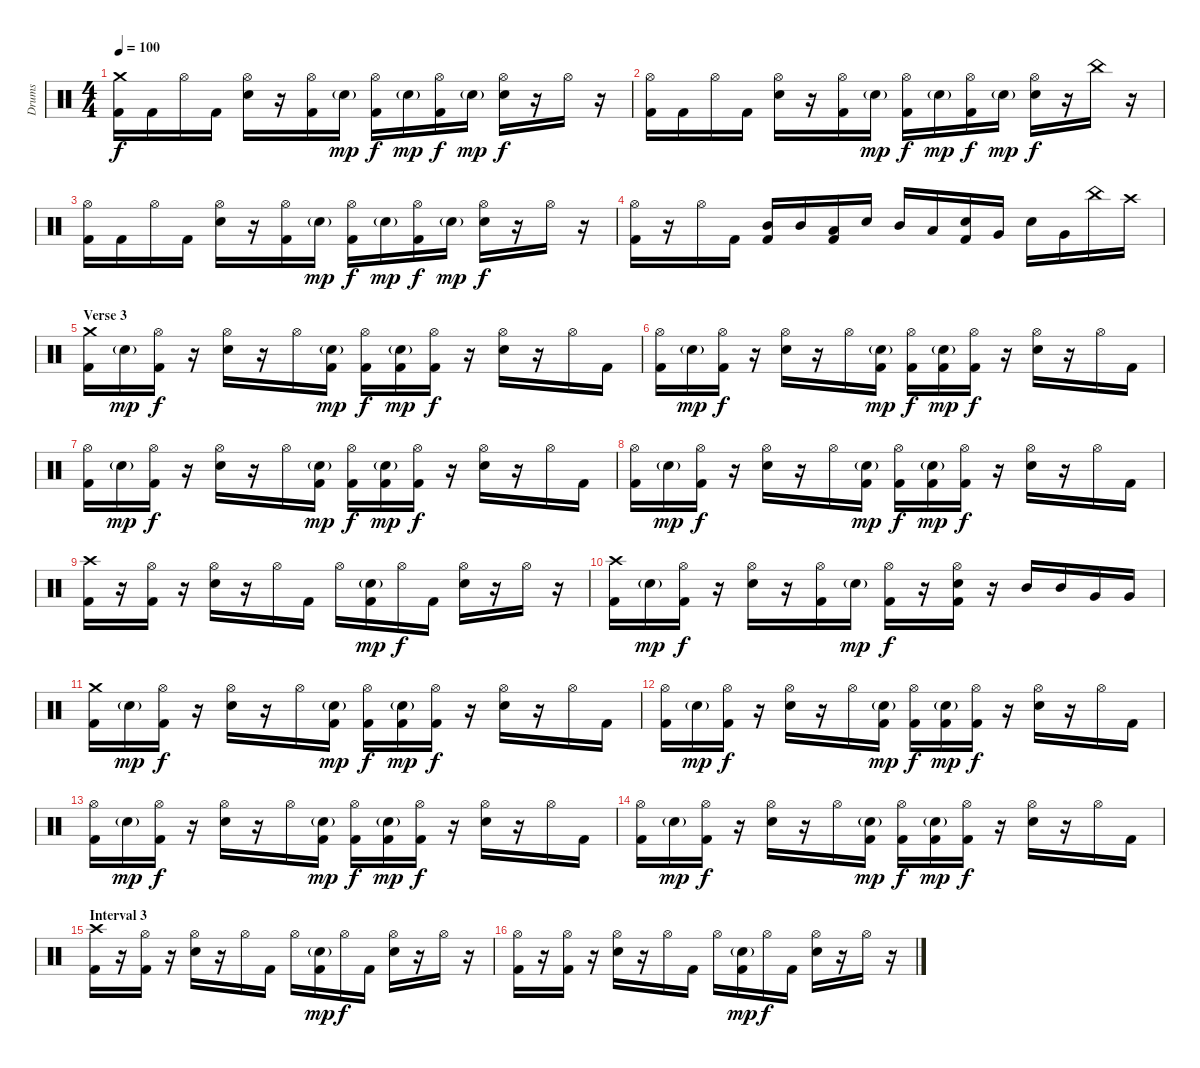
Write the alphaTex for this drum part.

\track ("Drums" "Drums") {instrument percussion}
\staff {score}
\articulation defaults
\ts (4 4)
\tempo 100
\clef neutral
\ks c
("Crash medium (hit)" "Kick (hit) 2").16{dy f} "Kick (hit) 2".16 "Hi-Hat (open)".16 "Kick (hit) 2".16 ("Hi-Hat (open)" "Snare (hit) 2").16 r.16 ("Hi-Hat (open)" "Kick (hit) 2").16 "Snare (hit) 2"{g}.16{dy mp} ("Hi-Hat (open)" "Kick (hit) 2").16{dy f} "Snare (hit) 2"{g}.16{dy mp} ("Hi-Hat (open)" "Kick (hit) 2").16{dy f} "Snare (hit) 2"{g}.16{dy mp} ("Hi-Hat (open)" "Snare (hit) 2").16{dy f} r.16 "Hi-Hat (open)".16 r.16 |
("Hi-Hat (open)" "Kick (hit) 2").16 "Kick (hit) 2".16 "Hi-Hat (open)".16 "Kick (hit) 2".16 ("Hi-Hat (open)" "Snare (hit) 2").16 r.16 ("Hi-Hat (open)" "Kick (hit) 2").16 "Snare (hit) 2"{g}.16{dy mp} ("Hi-Hat (open)" "Kick (hit) 2").16{dy f} "Snare (hit) 2"{g}.16{dy mp} ("Hi-Hat (open)" "Kick (hit) 2").16{dy f} "Snare (hit) 2"{g}.16{dy mp} ("Hi-Hat (open)" "Snare (hit) 2").16{dy f} r.16 "China (hit)".16 r.16 |
("Hi-Hat (open)" "Kick (hit) 2").16 "Kick (hit) 2".16 "Hi-Hat (open)".16 "Kick (hit) 2".16 ("Hi-Hat (open)" "Snare (hit) 2").16 r.16 ("Hi-Hat (open)" "Kick (hit) 2").16 "Snare (hit) 2"{g}.16{dy mp} ("Hi-Hat (open)" "Kick (hit) 2").16{dy f} "Snare (hit) 2"{g}.16{dy mp} ("Hi-Hat (open)" "Kick (hit) 2").16{dy f} "Snare (hit) 2"{g}.16{dy mp} ("Hi-Hat (open)" "Snare (hit) 2").16{dy f} r.16 "Hi-Hat (open)".16 r.16 |
("Hi-Hat (open)" "Kick (hit) 2").16 r.16 "Hi-Hat (open)".16 "Kick (hit) 2".16 ("Mid Tom (hit)" "Kick (hit) 2").16 "Mid Tom (hit)".16 ("Low Tom (hit)" "Kick (hit) 2").16 "Snare (hit) 2".16 "Mid Tom (hit)".16 "Low Tom (hit)".16 ("Snare (hit) 2" "Kick (hit) 2").16 "Very Low Tom (hit)".16 "Snare (hit) 2".16 "Very Low Tom (hit)".16 "China (hit)".16 "Crash high (hit)".16 |
\section ("" "Verse 3")
("Crash medium (hit)" "Kick (hit) 2").16 "Snare (hit) 2"{g}.16{dy mp} ("Hi-Hat (open)" "Kick (hit) 2").16{dy f} r.16 ("Hi-Hat (open)" "Snare (hit) 2").16 r.16 "Hi-Hat (open)".16 ("Snare (hit) 2"{g} "Kick (hit) 2").16{dy mp} ("Hi-Hat (open)" "Kick (hit) 2").16{dy f} ("Snare (hit) 2"{g} "Kick (hit) 2").16{dy mp} ("Hi-Hat (open)" "Kick (hit) 2").16{dy f} r.16 ("Hi-Hat (open)" "Snare (hit) 2").16 r.16 "Hi-Hat (open)".16 "Kick (hit) 2".16 |
("Hi-Hat (open)" "Kick (hit) 2").16 "Snare (hit) 2"{g}.16{dy mp} ("Hi-Hat (open)" "Kick (hit) 2").16{dy f} r.16 ("Hi-Hat (open)" "Snare (hit) 2").16 r.16 "Hi-Hat (open)".16 ("Snare (hit) 2"{g} "Kick (hit) 2").16{dy mp} ("Hi-Hat (open)" "Kick (hit) 2").16{dy f} ("Snare (hit) 2"{g} "Kick (hit) 2").16{dy mp} ("Hi-Hat (open)" "Kick (hit) 2").16{dy f} r.16 ("Hi-Hat (open)" "Snare (hit) 2").16 r.16 "Hi-Hat (open)".16 "Kick (hit) 2".16 |
("Hi-Hat (open)" "Kick (hit) 2").16 "Snare (hit) 2"{g}.16{dy mp} ("Hi-Hat (open)" "Kick (hit) 2").16{dy f} r.16 ("Hi-Hat (open)" "Snare (hit) 2").16 r.16 "Hi-Hat (open)".16 ("Snare (hit) 2"{g} "Kick (hit) 2").16{dy mp} ("Hi-Hat (open)" "Kick (hit) 2").16{dy f} ("Snare (hit) 2"{g} "Kick (hit) 2").16{dy mp} ("Hi-Hat (open)" "Kick (hit) 2").16{dy f} r.16 ("Hi-Hat (open)" "Snare (hit) 2").16 r.16 "Hi-Hat (open)".16 "Kick (hit) 2".16 |
("Hi-Hat (open)" "Kick (hit) 2").16 "Snare (hit) 2"{g}.16{dy mp} ("Hi-Hat (open)" "Kick (hit) 2").16{dy f} r.16 ("Hi-Hat (open)" "Snare (hit) 2").16 r.16 "Hi-Hat (open)".16 ("Snare (hit) 2"{g} "Kick (hit) 2").16{dy mp} ("Hi-Hat (open)" "Kick (hit) 2").16{dy f} ("Snare (hit) 2"{g} "Kick (hit) 2").16{dy mp} ("Hi-Hat (open)" "Kick (hit) 2").16{dy f} r.16 ("Hi-Hat (open)" "Snare (hit) 2").16 r.16 "Hi-Hat (open)".16 "Kick (hit) 2".16 |
("Crash high (hit)" "Kick (hit) 2").16 r.16 ("Hi-Hat (open)" "Kick (hit) 2").16 r.16 ("Hi-Hat (open)" "Snare (hit) 2").16 r.16 "Hi-Hat (open)".16 "Kick (hit) 2".16 "Hi-Hat (open)".16 ("Snare (hit) 2"{g} "Kick (hit) 2").16{dy mp} "Hi-Hat (open)".16{dy f} "Kick (hit) 2".16 ("Hi-Hat (open)" "Snare (hit) 2").16 r.16 "Hi-Hat (open)".16 r.16 |
("Crash high (hit)" "Kick (hit) 2").16 "Snare (hit) 2"{g}.16{dy mp} ("Hi-Hat (open)" "Kick (hit) 2").16{dy f} r.16 ("Hi-Hat (open)" "Snare (hit) 2").16 r.16 ("Hi-Hat (open)" "Kick (hit) 2").16 "Snare (hit) 2"{g}.16{dy mp} ("Hi-Hat (open)" "Kick (hit) 2").16{dy f} r.16 ("Hi-Hat (open)" "Snare (hit) 2" "Kick (hit) 2").16 r.16 "Mid Tom (hit)".16 "Mid Tom (hit)".16 "Very Low Tom (hit)".16 "Very Low Tom (hit)".16 |
("Crash medium (hit)" "Kick (hit) 2").16 "Snare (hit) 2"{g}.16{dy mp} ("Hi-Hat (open)" "Kick (hit) 2").16{dy f} r.16 ("Hi-Hat (open)" "Snare (hit) 2").16 r.16 "Hi-Hat (open)".16 ("Snare (hit) 2"{g} "Kick (hit) 2").16{dy mp} ("Hi-Hat (open)" "Kick (hit) 2").16{dy f} ("Snare (hit) 2"{g} "Kick (hit) 2").16{dy mp} ("Hi-Hat (open)" "Kick (hit) 2").16{dy f} r.16 ("Hi-Hat (open)" "Snare (hit) 2").16 r.16 "Hi-Hat (open)".16 "Kick (hit) 2".16 |
("Hi-Hat (open)" "Kick (hit) 2").16 "Snare (hit) 2"{g}.16{dy mp} ("Hi-Hat (open)" "Kick (hit) 2").16{dy f} r.16 ("Hi-Hat (open)" "Snare (hit) 2").16 r.16 "Hi-Hat (open)".16 ("Snare (hit) 2"{g} "Kick (hit) 2").16{dy mp} ("Hi-Hat (open)" "Kick (hit) 2").16{dy f} ("Snare (hit) 2"{g} "Kick (hit) 2").16{dy mp} ("Hi-Hat (open)" "Kick (hit) 2").16{dy f} r.16 ("Hi-Hat (open)" "Snare (hit) 2").16 r.16 "Hi-Hat (open)".16 "Kick (hit) 2".16 |
("Hi-Hat (open)" "Kick (hit) 2").16 "Snare (hit) 2"{g}.16{dy mp} ("Hi-Hat (open)" "Kick (hit) 2").16{dy f} r.16 ("Hi-Hat (open)" "Snare (hit) 2").16 r.16 "Hi-Hat (open)".16 ("Snare (hit) 2"{g} "Kick (hit) 2").16{dy mp} ("Hi-Hat (open)" "Kick (hit) 2").16{dy f} ("Snare (hit) 2"{g} "Kick (hit) 2").16{dy mp} ("Hi-Hat (open)" "Kick (hit) 2").16{dy f} r.16 ("Hi-Hat (open)" "Snare (hit) 2").16 r.16 "Hi-Hat (open)".16 "Kick (hit) 2".16 |
("Hi-Hat (open)" "Kick (hit) 2").16 "Snare (hit) 2"{g}.16{dy mp} ("Hi-Hat (open)" "Kick (hit) 2").16{dy f} r.16 ("Hi-Hat (open)" "Snare (hit) 2").16 r.16 "Hi-Hat (open)".16 ("Snare (hit) 2"{g} "Kick (hit) 2").16{dy mp} ("Hi-Hat (open)" "Kick (hit) 2").16{dy f} ("Snare (hit) 2"{g} "Kick (hit) 2").16{dy mp} ("Hi-Hat (open)" "Kick (hit) 2").16{dy f} r.16 ("Hi-Hat (open)" "Snare (hit) 2").16 r.16 "Hi-Hat (open)".16 "Kick (hit) 2".16 |
\section ("" "Interval 3")
("Crash high (hit)" "Kick (hit) 2").16 r.16 ("Hi-Hat (open)" "Kick (hit) 2").16 r.16 ("Hi-Hat (open)" "Snare (hit) 2").16 r.16 "Hi-Hat (open)".16 "Kick (hit) 2".16 "Hi-Hat (open)".16 ("Snare (hit) 2"{g} "Kick (hit) 2").16{dy mp} "Hi-Hat (open)".16{dy f} "Kick (hit) 2".16 ("Hi-Hat (open)" "Snare (hit) 2").16 r.16 "Hi-Hat (open)".16 r.16 |
("Hi-Hat (open)" "Kick (hit) 2").16 r.16 ("Hi-Hat (open)" "Kick (hit) 2").16 r.16 ("Hi-Hat (open)" "Snare (hit) 2").16 r.16 "Hi-Hat (open)".16 "Kick (hit) 2".16 "Hi-Hat (open)".16 ("Snare (hit) 2"{g} "Kick (hit) 2").16{dy mp} "Hi-Hat (open)".16{dy f} "Kick (hit) 2".16 ("Hi-Hat (open)" "Snare (hit) 2").16 r.16 "Hi-Hat (open)".16 r.16
